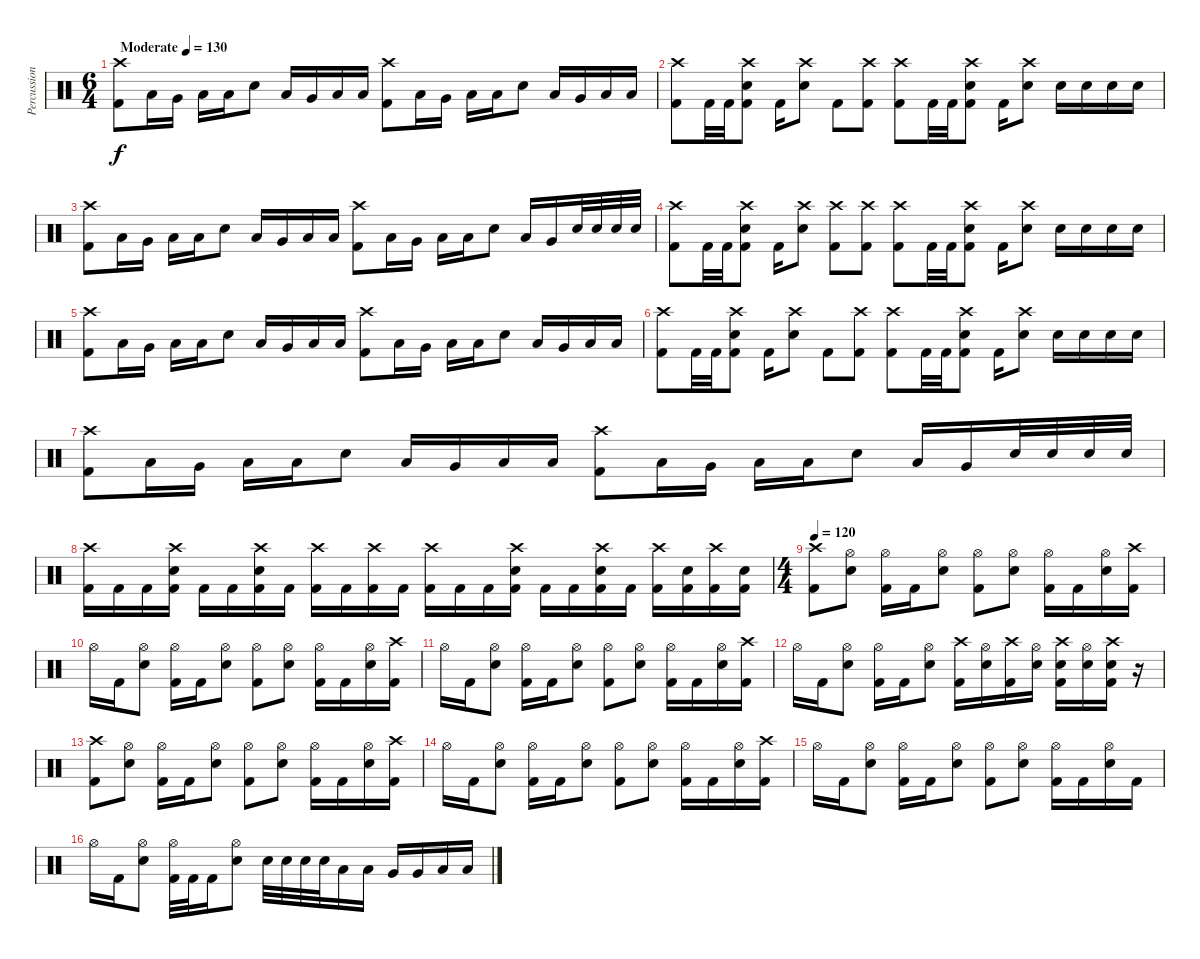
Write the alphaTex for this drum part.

\track ("Percussion" "Percussion") {instrument percussion}
\staff {score}
\articulation defaults
\ts (6 4)
\tempo (130 "Moderate")
\clef neutral
\ks c
("Crash high (hit)" "Kick (hit) 2").8{dy f} "Low Tom (hit)".16 "Very Low Tom (hit)".16 "Low Floor Tom (hit)".16 "Low Floor Tom (hit)".16 "Electric Snare (hit)".8 "Low Tom (hit)".16 "Very Low Tom (hit)".16 "Low Floor Tom (hit)".16 "Low Floor Tom (hit)".16 ("Crash high (hit)" "Kick (hit) 2").8 "Low Tom (hit)".16 "Very Low Tom (hit)".16 "Low Floor Tom (hit)".16 "Low Floor Tom (hit)".16 "Electric Snare (hit)".8 "Low Tom (hit)".16 "Very Low Tom (hit)".16 "Low Floor Tom (hit)".16 "Low Floor Tom (hit)".16 |
("Crash high (hit)" "Kick (hit) 2").8 "Kick (hit) 2".32 "Kick (hit) 2".32 ("Crash high (hit)" "Electric Snare (hit)" "Kick (hit) 2").8 "Kick (hit) 2".16 ("Crash high (hit)" "Electric Snare (hit)").8 "Kick (hit) 2".8 ("Crash high (hit)" "Kick (hit) 2").8 ("Crash high (hit)" "Kick (hit) 2").8 "Kick (hit) 2".32 "Kick (hit) 2".32 ("Crash high (hit)" "Electric Snare (hit)" "Kick (hit) 2").8 "Kick (hit) 2".16 ("Crash high (hit)" "Electric Snare (hit)").8 "Electric Snare (hit)".16 "Electric Snare (hit)".16 "Electric Snare (hit)".16 "Electric Snare (hit)".16 |
("Crash high (hit)" "Kick (hit) 2").8 "Low Tom (hit)".16 "Very Low Tom (hit)".16 "Low Floor Tom (hit)".16 "Low Floor Tom (hit)".16 "Electric Snare (hit)".8 "Low Tom (hit)".16 "Very Low Tom (hit)".16 "Low Floor Tom (hit)".16 "Low Floor Tom (hit)".16 ("Crash high (hit)" "Kick (hit) 2").8 "Low Tom (hit)".16 "Very Low Tom (hit)".16 "Low Floor Tom (hit)".16 "Low Floor Tom (hit)".16 "Electric Snare (hit)".8 "Low Tom (hit)".16 "Very Low Tom (hit)".16 "Electric Snare (hit)".32 "Electric Snare (hit)".32 "Electric Snare (hit)".32 "Electric Snare (hit)".32 |
("Crash high (hit)" "Kick (hit) 2").8 "Kick (hit) 2".32 "Kick (hit) 2".32 ("Crash high (hit)" "Electric Snare (hit)" "Kick (hit) 2").8 "Kick (hit) 2".16 ("Crash high (hit)" "Electric Snare (hit)").8 ("Crash high (hit)" "Kick (hit) 2").8 ("Crash high (hit)" "Kick (hit) 2").8 ("Crash high (hit)" "Kick (hit) 2").8 "Kick (hit) 2".32 "Kick (hit) 2".32 ("Crash high (hit)" "Electric Snare (hit)" "Kick (hit) 2").8 "Kick (hit) 2".16 ("Crash high (hit)" "Electric Snare (hit)").8 "Electric Snare (hit)".16 "Electric Snare (hit)".16 "Electric Snare (hit)".16 "Electric Snare (hit)".16 |
("Crash high (hit)" "Kick (hit) 2").8 "Low Tom (hit)".16 "Very Low Tom (hit)".16 "Low Floor Tom (hit)".16 "Low Floor Tom (hit)".16 "Electric Snare (hit)".8 "Low Tom (hit)".16 "Very Low Tom (hit)".16 "Low Floor Tom (hit)".16 "Low Floor Tom (hit)".16 ("Crash high (hit)" "Kick (hit) 2").8 "Low Tom (hit)".16 "Very Low Tom (hit)".16 "Low Floor Tom (hit)".16 "Low Floor Tom (hit)".16 "Electric Snare (hit)".8 "Low Tom (hit)".16 "Very Low Tom (hit)".16 "Low Floor Tom (hit)".16 "Low Floor Tom (hit)".16 |
("Crash high (hit)" "Kick (hit) 2").8 "Kick (hit) 2".32 "Kick (hit) 2".32 ("Crash high (hit)" "Electric Snare (hit)" "Kick (hit) 2").8 "Kick (hit) 2".16 ("Crash high (hit)" "Electric Snare (hit)").8 "Kick (hit) 2".8 ("Crash high (hit)" "Kick (hit) 2").8 ("Crash high (hit)" "Kick (hit) 2").8 "Kick (hit) 2".32 "Kick (hit) 2".32 ("Crash high (hit)" "Electric Snare (hit)" "Kick (hit) 2").8 "Kick (hit) 2".16 ("Crash high (hit)" "Electric Snare (hit)").8 "Electric Snare (hit)".16 "Electric Snare (hit)".16 "Electric Snare (hit)".16 "Electric Snare (hit)".16 |
("Crash high (hit)" "Kick (hit) 2").8 "Low Tom (hit)".16 "Very Low Tom (hit)".16 "Low Floor Tom (hit)".16 "Low Floor Tom (hit)".16 "Electric Snare (hit)".8 "Low Tom (hit)".16 "Very Low Tom (hit)".16 "Low Floor Tom (hit)".16 "Low Floor Tom (hit)".16 ("Crash high (hit)" "Kick (hit) 2").8 "Low Tom (hit)".16 "Very Low Tom (hit)".16 "Low Floor Tom (hit)".16 "Low Floor Tom (hit)".16 "Electric Snare (hit)".8 "Low Tom (hit)".16 "Very Low Tom (hit)".16 "Electric Snare (hit)".32 "Electric Snare (hit)".32 "Electric Snare (hit)".32 "Electric Snare (hit)".32 |
("Crash high (hit)" "Kick (hit) 2").16 "Kick (hit) 2".16 "Kick (hit) 2".16 ("Crash high (hit)" "Electric Snare (hit)" "Kick (hit) 2").16 "Kick (hit) 2".16 "Kick (hit) 2".16 ("Crash high (hit)" "Electric Snare (hit)" "Kick (hit) 2").16 "Kick (hit) 2".16 ("Crash high (hit)" "Kick (hit) 2").16 "Kick (hit) 2".16 ("Crash high (hit)" "Kick (hit) 2").16 "Kick (hit) 2".16 ("Crash high (hit)" "Kick (hit) 2").16 "Kick (hit) 2".16 "Kick (hit) 2".16 ("Crash high (hit)" "Electric Snare (hit)" "Kick (hit) 2").16 "Kick (hit) 2".16 "Kick (hit) 2".16 ("Crash high (hit)" "Electric Snare (hit)" "Kick (hit) 2").16 "Kick (hit) 2".16 ("Crash high (hit)" "Kick (hit) 2").16 ("Electric Snare (hit)" "Kick (hit) 2").16 ("Crash high (hit)" "Kick (hit) 2").16 ("Electric Snare (hit)" "Kick (hit) 2").16 |
\ts (4 4)
\tempo 120
("Crash high (hit)" "Kick (hit) 2").8 ("Hi-Hat (open)" "Electric Snare (hit)").8 ("Hi-Hat (open)" "Kick (hit) 2").16 "Kick (hit) 2".16 ("Hi-Hat (open)" "Electric Snare (hit)").8 ("Hi-Hat (open)" "Kick (hit) 2").8 ("Hi-Hat (open)" "Electric Snare (hit)").8 ("Hi-Hat (open)" "Kick (hit) 2").16 "Kick (hit) 2".16 ("Hi-Hat (open)" "Electric Snare (hit)").16 ("Crash high (hit)" "Kick (hit) 2").16 |
"Hi-Hat (open)".16 "Kick (hit) 2".16 ("Hi-Hat (open)" "Electric Snare (hit)").8 ("Hi-Hat (open)" "Kick (hit) 2").16 "Kick (hit) 2".16 ("Hi-Hat (open)" "Electric Snare (hit)").8 ("Hi-Hat (open)" "Kick (hit) 2").8 ("Hi-Hat (open)" "Electric Snare (hit)").8 ("Hi-Hat (open)" "Kick (hit) 2").16 "Kick (hit) 2".16 ("Hi-Hat (open)" "Electric Snare (hit)").16 ("Crash high (hit)" "Kick (hit) 2").16 |
"Hi-Hat (open)".16 "Kick (hit) 2".16 ("Hi-Hat (open)" "Electric Snare (hit)").8 ("Hi-Hat (open)" "Kick (hit) 2").16 "Kick (hit) 2".16 ("Hi-Hat (open)" "Electric Snare (hit)").8 ("Hi-Hat (open)" "Kick (hit) 2").8 ("Hi-Hat (open)" "Electric Snare (hit)").8 ("Hi-Hat (open)" "Kick (hit) 2").16 "Kick (hit) 2".16 ("Hi-Hat (open)" "Electric Snare (hit)").16 ("Crash high (hit)" "Kick (hit) 2").16 |
"Hi-Hat (open)".16 "Kick (hit) 2".16 ("Hi-Hat (open)" "Electric Snare (hit)").8 ("Hi-Hat (open)" "Kick (hit) 2").16 "Kick (hit) 2".16 ("Hi-Hat (open)" "Electric Snare (hit)").8 ("Crash high (hit)" "Kick (hit) 2").16 ("Hi-Hat (open)" "Electric Snare (hit)").16 ("Crash high (hit)" "Kick (hit) 2").16 ("Hi-Hat (open)" "Electric Snare (hit)").16 ("Crash high (hit)" "Electric Snare (hit)" "Kick (hit) 2").16 ("Hi-Hat (open)" "Electric Snare (hit)").16 ("Crash high (hit)" "Electric Snare (hit)" "Kick (hit) 2").16 r.16 |
("Crash high (hit)" "Kick (hit) 2").8 ("Hi-Hat (open)" "Electric Snare (hit)").8 ("Hi-Hat (open)" "Kick (hit) 2").16 "Kick (hit) 2".16 ("Hi-Hat (open)" "Electric Snare (hit)").8 ("Hi-Hat (open)" "Kick (hit) 2").8 ("Hi-Hat (open)" "Electric Snare (hit)").8 ("Hi-Hat (open)" "Kick (hit) 2").16 "Kick (hit) 2".16 ("Hi-Hat (open)" "Electric Snare (hit)").16 ("Crash high (hit)" "Kick (hit) 2").16 |
"Hi-Hat (open)".16 "Kick (hit) 2".16 ("Hi-Hat (open)" "Electric Snare (hit)").8 ("Hi-Hat (open)" "Kick (hit) 2").16 "Kick (hit) 2".16 ("Hi-Hat (open)" "Electric Snare (hit)").8 ("Hi-Hat (open)" "Kick (hit) 2").8 ("Hi-Hat (open)" "Electric Snare (hit)").8 ("Hi-Hat (open)" "Kick (hit) 2").16 "Kick (hit) 2".16 ("Hi-Hat (open)" "Electric Snare (hit)").16 ("Crash high (hit)" "Kick (hit) 2").16 |
"Hi-Hat (open)".16 "Kick (hit) 2".16 ("Hi-Hat (open)" "Electric Snare (hit)").8 ("Hi-Hat (open)" "Kick (hit) 2").16 "Kick (hit) 2".16 ("Hi-Hat (open)" "Electric Snare (hit)").8 ("Hi-Hat (open)" "Kick (hit) 2").8 ("Hi-Hat (open)" "Electric Snare (hit)").8 ("Hi-Hat (open)" "Kick (hit) 2").16 "Kick (hit) 2".16 ("Hi-Hat (open)" "Electric Snare (hit)").16 "Kick (hit) 2".16 |
"Hi-Hat (open)".16 "Kick (hit) 2".16 ("Hi-Hat (open)" "Electric Snare (hit)").8 ("Hi-Hat (open)" "Kick (hit) 2").32 "Kick (hit) 2".32 "Kick (hit) 2".16 ("Hi-Hat (open)" "Electric Snare (hit)").8 "Electric Snare (hit)".32 "Electric Snare (hit)".32 "Electric Snare (hit)".32 "Electric Snare (hit)".32 "Low Tom (hit)".16 "Low Tom (hit)".16 "Very Low Tom (hit)".16 "Very Low Tom (hit)".16 "Low Floor Tom (hit)".16 "Low Floor Tom (hit)".16
